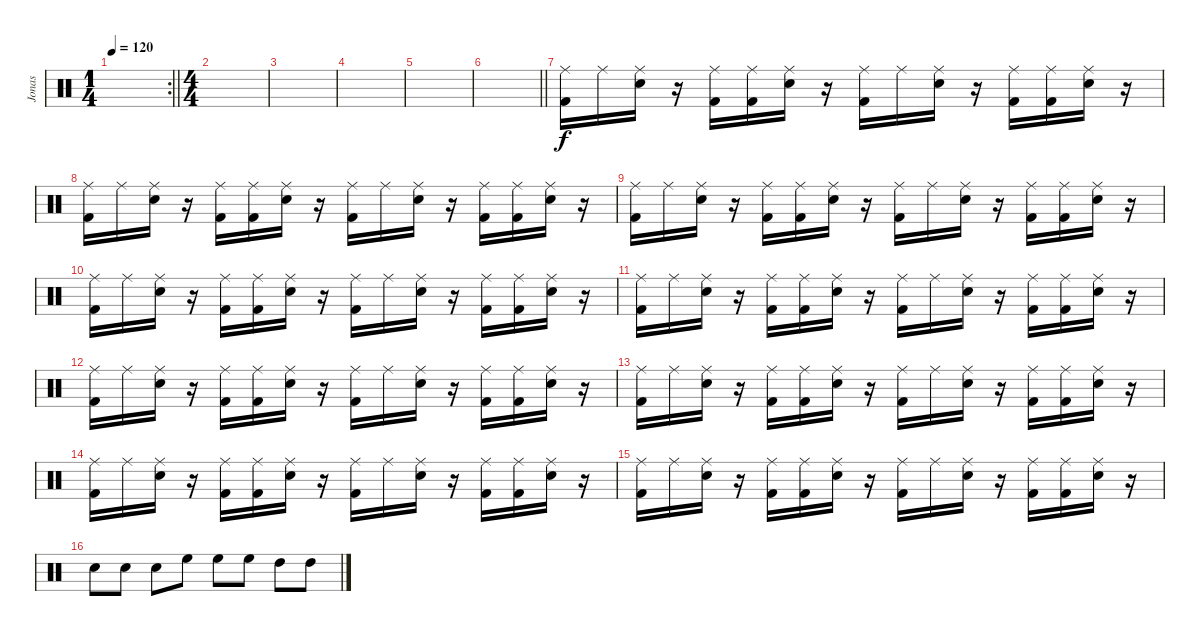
\track ("Jonas" "Jonas") {instrument percussion}
\staff {score}
\articulation defaults
\rc 2
\ts (1 4)
\tempo 120
\clef neutral
\barLineRight lightlight
\ks c
|
\ts (4 4)
|
|
|
|
\barLineRight lightlight
|
("Ride (middle)" "Kick (hit) 2").16 "Ride (middle)".16 ("Ride (middle)" "Snare (hit) 2").16 r.16 ("Ride (middle)" "Kick (hit) 2").16 ("Ride (middle)" "Kick (hit) 2").16 ("Ride (middle)" "Snare (hit) 2").16 r.16 ("Ride (middle)" "Kick (hit) 2").16 "Ride (middle)".16 ("Ride (middle)" "Snare (hit) 2").16 r.16 ("Ride (middle)" "Kick (hit) 2").16 ("Ride (middle)" "Kick (hit) 2").16 ("Ride (middle)" "Snare (hit) 2").16 r.16 |
("Ride (middle)" "Kick (hit) 2").16 "Ride (middle)".16 ("Ride (middle)" "Snare (hit) 2").16 r.16 ("Ride (middle)" "Kick (hit) 2").16 ("Ride (middle)" "Kick (hit) 2").16 ("Ride (middle)" "Snare (hit) 2").16 r.16 ("Ride (middle)" "Kick (hit) 2").16 "Ride (middle)".16 ("Ride (middle)" "Snare (hit) 2").16 r.16 ("Ride (middle)" "Kick (hit) 2").16 ("Ride (middle)" "Kick (hit) 2").16 ("Ride (middle)" "Snare (hit) 2").16 r.16 |
("Ride (middle)" "Kick (hit) 2").16 "Ride (middle)".16 ("Ride (middle)" "Snare (hit) 2").16 r.16 ("Ride (middle)" "Kick (hit) 2").16 ("Ride (middle)" "Kick (hit) 2").16 ("Ride (middle)" "Snare (hit) 2").16 r.16 ("Ride (middle)" "Kick (hit) 2").16 "Ride (middle)".16 ("Ride (middle)" "Snare (hit) 2").16 r.16 ("Ride (middle)" "Kick (hit) 2").16 ("Ride (middle)" "Kick (hit) 2").16 ("Ride (middle)" "Snare (hit) 2").16 r.16 |
("Ride (middle)" "Kick (hit) 2").16 "Ride (middle)".16 ("Ride (middle)" "Snare (hit) 2").16 r.16 ("Ride (middle)" "Kick (hit) 2").16 ("Ride (middle)" "Kick (hit) 2").16 ("Ride (middle)" "Snare (hit) 2").16 r.16 ("Ride (middle)" "Kick (hit) 2").16 "Ride (middle)".16 ("Ride (middle)" "Snare (hit) 2").16 r.16 ("Ride (middle)" "Kick (hit) 2").16 ("Ride (middle)" "Kick (hit) 2").16 ("Ride (middle)" "Snare (hit) 2").16 r.16 |
("Ride (middle)" "Kick (hit) 2").16 "Ride (middle)".16 ("Ride (middle)" "Snare (hit) 2").16 r.16 ("Ride (middle)" "Kick (hit) 2").16 ("Ride (middle)" "Kick (hit) 2").16 ("Ride (middle)" "Snare (hit) 2").16 r.16 ("Ride (middle)" "Kick (hit) 2").16 "Ride (middle)".16 ("Ride (middle)" "Snare (hit) 2").16 r.16 ("Ride (middle)" "Kick (hit) 2").16 ("Ride (middle)" "Kick (hit) 2").16 ("Ride (middle)" "Snare (hit) 2").16 r.16 |
("Ride (middle)" "Kick (hit) 2").16 "Ride (middle)".16 ("Ride (middle)" "Snare (hit) 2").16 r.16 ("Ride (middle)" "Kick (hit) 2").16 ("Ride (middle)" "Kick (hit) 2").16 ("Ride (middle)" "Snare (hit) 2").16 r.16 ("Ride (middle)" "Kick (hit) 2").16 "Ride (middle)".16 ("Ride (middle)" "Snare (hit) 2").16 r.16 ("Ride (middle)" "Kick (hit) 2").16 ("Ride (middle)" "Kick (hit) 2").16 ("Ride (middle)" "Snare (hit) 2").16 r.16 |
("Ride (middle)" "Kick (hit) 2").16 "Ride (middle)".16 ("Ride (middle)" "Snare (hit) 2").16 r.16 ("Ride (middle)" "Kick (hit) 2").16 ("Ride (middle)" "Kick (hit) 2").16 ("Ride (middle)" "Snare (hit) 2").16 r.16 ("Ride (middle)" "Kick (hit) 2").16 "Ride (middle)".16 ("Ride (middle)" "Snare (hit) 2").16 r.16 ("Ride (middle)" "Kick (hit) 2").16 ("Ride (middle)" "Kick (hit) 2").16 ("Ride (middle)" "Snare (hit) 2").16 r.16 |
("Ride (middle)" "Kick (hit) 2").16 "Ride (middle)".16 ("Ride (middle)" "Snare (hit) 2").16 r.16 ("Ride (middle)" "Kick (hit) 2").16 ("Ride (middle)" "Kick (hit) 2").16 ("Ride (middle)" "Snare (hit) 2").16 r.16 ("Ride (middle)" "Kick (hit) 2").16 "Ride (middle)".16 ("Ride (middle)" "Snare (hit) 2").16 r.16 ("Ride (middle)" "Kick (hit) 2").16 ("Ride (middle)" "Kick (hit) 2").16 ("Ride (middle)" "Snare (hit) 2").16 r.16 |
("Ride (middle)" "Kick (hit) 2").16 "Ride (middle)".16 ("Ride (middle)" "Snare (hit) 2").16 r.16 ("Ride (middle)" "Kick (hit) 2").16 ("Ride (middle)" "Kick (hit) 2").16 ("Ride (middle)" "Snare (hit) 2").16 r.16 ("Ride (middle)" "Kick (hit) 2").16 "Ride (middle)".16 ("Ride (middle)" "Snare (hit) 2").16 r.16 ("Ride (middle)" "Kick (hit) 2").16 ("Ride (middle)" "Kick (hit) 2").16 ("Ride (middle)" "Snare (hit) 2").16 r.16 |
"Snare (hit) 2".8 "Snare (hit) 2".8 "Snare (hit) 2".8 "High Floor Tom (hit)".8 "High Floor Tom (hit)".8 "High Floor Tom (hit)".8 "High Tom (hit)".8 "High Tom (hit)".8
